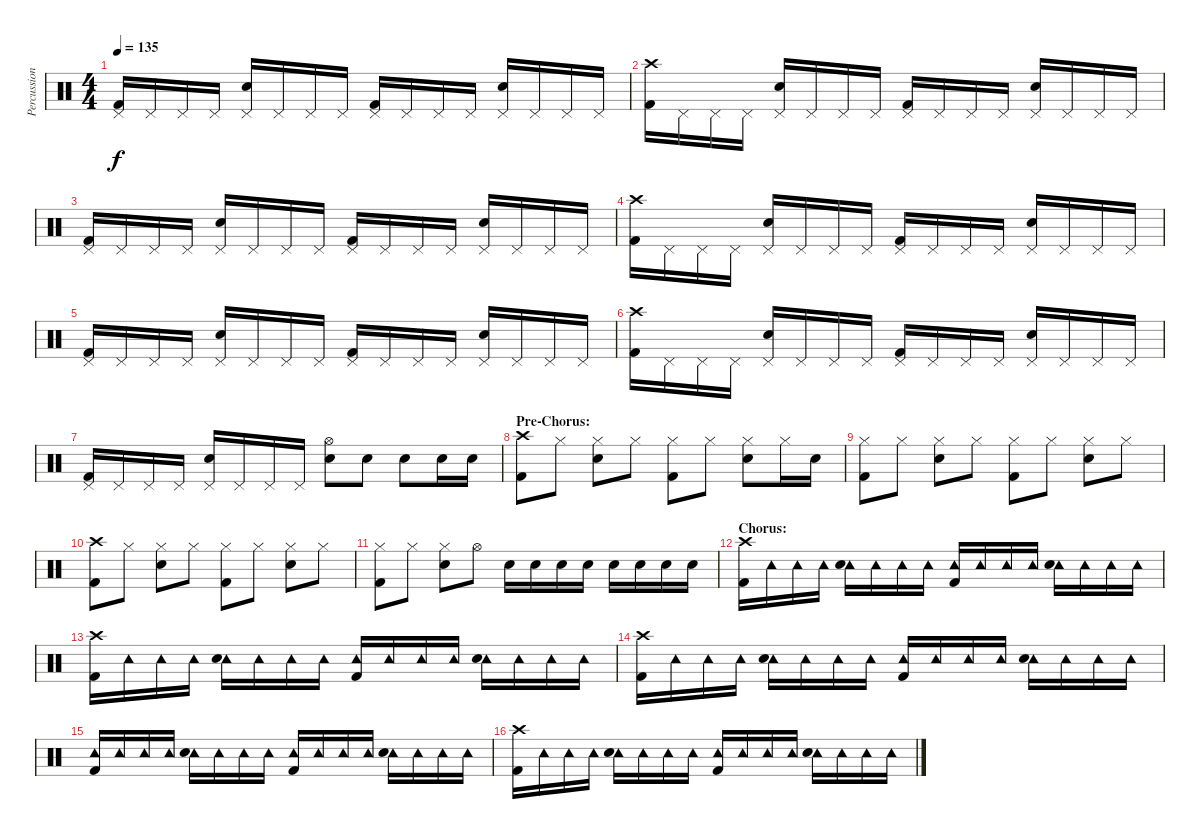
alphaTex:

\track ("Percussion" "Percussion") {instrument percussion}
\staff {score}
\articulation defaults
\ts (4 4)
\tempo 135
\clef neutral
\ks c
("Pedal Hi-Hat (hit)" "Kick (hit) 2").16{dy f} "Pedal Hi-Hat (hit)".16 "Pedal Hi-Hat (hit)".16 "Pedal Hi-Hat (hit)".16 ("Pedal Hi-Hat (hit)" "Snare (hit) 2").16 "Pedal Hi-Hat (hit)".16 "Pedal Hi-Hat (hit)".16 "Pedal Hi-Hat (hit)".16 ("Pedal Hi-Hat (hit)" "Kick (hit) 2").16 "Pedal Hi-Hat (hit)".16 "Pedal Hi-Hat (hit)".16 "Pedal Hi-Hat (hit)".16 ("Pedal Hi-Hat (hit)" "Snare (hit) 2").16 "Pedal Hi-Hat (hit)".16 "Pedal Hi-Hat (hit)".16 "Pedal Hi-Hat (hit)".16 |
("Crash high (hit)" "Kick (hit) 2").16 "Pedal Hi-Hat (hit)".16 "Pedal Hi-Hat (hit)".16 "Pedal Hi-Hat (hit)".16 ("Pedal Hi-Hat (hit)" "Snare (hit) 2").16 "Pedal Hi-Hat (hit)".16 "Pedal Hi-Hat (hit)".16 "Pedal Hi-Hat (hit)".16 ("Pedal Hi-Hat (hit)" "Kick (hit) 2").16 "Pedal Hi-Hat (hit)".16 "Pedal Hi-Hat (hit)".16 "Pedal Hi-Hat (hit)".16 ("Pedal Hi-Hat (hit)" "Snare (hit) 2").16 "Pedal Hi-Hat (hit)".16 "Pedal Hi-Hat (hit)".16 "Pedal Hi-Hat (hit)".16 |
("Pedal Hi-Hat (hit)" "Kick (hit) 2").16 "Pedal Hi-Hat (hit)".16 "Pedal Hi-Hat (hit)".16 "Pedal Hi-Hat (hit)".16 ("Pedal Hi-Hat (hit)" "Snare (hit) 2").16 "Pedal Hi-Hat (hit)".16 "Pedal Hi-Hat (hit)".16 "Pedal Hi-Hat (hit)".16 ("Pedal Hi-Hat (hit)" "Kick (hit) 2").16 "Pedal Hi-Hat (hit)".16 "Pedal Hi-Hat (hit)".16 "Pedal Hi-Hat (hit)".16 ("Pedal Hi-Hat (hit)" "Snare (hit) 2").16 "Pedal Hi-Hat (hit)".16 "Pedal Hi-Hat (hit)".16 "Pedal Hi-Hat (hit)".16 |
("Crash high (hit)" "Kick (hit) 2").16 "Pedal Hi-Hat (hit)".16 "Pedal Hi-Hat (hit)".16 "Pedal Hi-Hat (hit)".16 ("Pedal Hi-Hat (hit)" "Snare (hit) 2").16 "Pedal Hi-Hat (hit)".16 "Pedal Hi-Hat (hit)".16 "Pedal Hi-Hat (hit)".16 ("Pedal Hi-Hat (hit)" "Kick (hit) 2").16 "Pedal Hi-Hat (hit)".16 "Pedal Hi-Hat (hit)".16 "Pedal Hi-Hat (hit)".16 ("Pedal Hi-Hat (hit)" "Snare (hit) 2").16 "Pedal Hi-Hat (hit)".16 "Pedal Hi-Hat (hit)".16 "Pedal Hi-Hat (hit)".16 |
("Pedal Hi-Hat (hit)" "Kick (hit) 2").16 "Pedal Hi-Hat (hit)".16 "Pedal Hi-Hat (hit)".16 "Pedal Hi-Hat (hit)".16 ("Pedal Hi-Hat (hit)" "Snare (hit) 2").16 "Pedal Hi-Hat (hit)".16 "Pedal Hi-Hat (hit)".16 "Pedal Hi-Hat (hit)".16 ("Pedal Hi-Hat (hit)" "Kick (hit) 2").16 "Pedal Hi-Hat (hit)".16 "Pedal Hi-Hat (hit)".16 "Pedal Hi-Hat (hit)".16 ("Pedal Hi-Hat (hit)" "Snare (hit) 2").16 "Pedal Hi-Hat (hit)".16 "Pedal Hi-Hat (hit)".16 "Pedal Hi-Hat (hit)".16 |
("Crash high (hit)" "Kick (hit) 2").16 "Pedal Hi-Hat (hit)".16 "Pedal Hi-Hat (hit)".16 "Pedal Hi-Hat (hit)".16 ("Pedal Hi-Hat (hit)" "Snare (hit) 2").16 "Pedal Hi-Hat (hit)".16 "Pedal Hi-Hat (hit)".16 "Pedal Hi-Hat (hit)".16 ("Pedal Hi-Hat (hit)" "Kick (hit) 2").16 "Pedal Hi-Hat (hit)".16 "Pedal Hi-Hat (hit)".16 "Pedal Hi-Hat (hit)".16 ("Pedal Hi-Hat (hit)" "Snare (hit) 2").16 "Pedal Hi-Hat (hit)".16 "Pedal Hi-Hat (hit)".16 "Pedal Hi-Hat (hit)".16 |
("Pedal Hi-Hat (hit)" "Kick (hit) 2").16 "Pedal Hi-Hat (hit)".16 "Pedal Hi-Hat (hit)".16 "Pedal Hi-Hat (hit)".16 ("Pedal Hi-Hat (hit)" "Snare (hit) 2").16 "Pedal Hi-Hat (hit)".16 "Pedal Hi-Hat (hit)".16 "Pedal Hi-Hat (hit)".16 ("Hi-Hat (open)" "Snare (hit) 2").8 "Snare (hit) 2".8 "Snare (hit) 2".8 "Snare (hit) 2".16 "Snare (hit) 2".16 |
\section ("" "Pre-Chorus:")
("Crash high (hit)" "Kick (hit) 2").8 "Hi-Hat (closed)".8 ("Hi-Hat (closed)" "Snare (hit) 2").8 "Hi-Hat (closed)".8 ("Hi-Hat (closed)" "Kick (hit) 2").8 "Hi-Hat (closed)".8 ("Hi-Hat (closed)" "Snare (hit) 2").8 "Hi-Hat (closed)".16 "Snare (hit) 2".16 |
("Hi-Hat (closed)" "Kick (hit) 2").8 "Hi-Hat (closed)".8 ("Hi-Hat (closed)" "Snare (hit) 2").8 "Hi-Hat (closed)".8 ("Hi-Hat (closed)" "Kick (hit) 2").8 "Hi-Hat (closed)".8 ("Hi-Hat (closed)" "Snare (hit) 2").8 "Hi-Hat (closed)".8 |
("Crash high (hit)" "Kick (hit) 2").8 "Hi-Hat (closed)".8 ("Hi-Hat (closed)" "Snare (hit) 2").8 "Hi-Hat (closed)".8 ("Hi-Hat (closed)" "Kick (hit) 2").8 "Hi-Hat (closed)".8 ("Hi-Hat (closed)" "Snare (hit) 2").8 "Hi-Hat (closed)".8 |
("Hi-Hat (closed)" "Kick (hit) 2").8 "Hi-Hat (closed)".8 ("Hi-Hat (closed)" "Snare (hit) 2").8 "Hi-Hat (open)".8 "Snare (hit) 2".16 "Snare (hit) 2".16 "Snare (hit) 2".16 "Snare (hit) 2".16 "Snare (hit) 2".16 "Snare (hit) 2".16 "Snare (hit) 2".16 "Snare (hit) 2".16 |
\section ("" "Chorus:")
("Crash high (hit)" "Kick (hit) 2").16 "Tambourine (hit)".16 "Tambourine (hit)".16 "Tambourine (hit)".16 ("Tambourine (hit)" "Snare (hit) 2").16 "Tambourine (hit)".16 "Tambourine (hit)".16 "Tambourine (hit)".16 ("Tambourine (hit)" "Kick (hit) 2").16 "Tambourine (hit)".16 "Tambourine (hit)".16 "Tambourine (hit)".16 ("Tambourine (hit)" "Snare (hit) 2").16 "Tambourine (hit)".16 "Tambourine (hit)".16 "Tambourine (hit)".16 |
("Crash high (hit)" "Kick (hit) 2").16 "Tambourine (hit)".16 "Tambourine (hit)".16 "Tambourine (hit)".16 ("Tambourine (hit)" "Snare (hit) 2").16 "Tambourine (hit)".16 "Tambourine (hit)".16 "Tambourine (hit)".16 ("Tambourine (hit)" "Kick (hit) 2").16 "Tambourine (hit)".16 "Tambourine (hit)".16 "Tambourine (hit)".16 ("Tambourine (hit)" "Snare (hit) 2").16 "Tambourine (hit)".16 "Tambourine (hit)".16 "Tambourine (hit)".16 |
("Crash high (hit)" "Kick (hit) 2").16 "Tambourine (hit)".16 "Tambourine (hit)".16 "Tambourine (hit)".16 ("Tambourine (hit)" "Snare (hit) 2").16 "Tambourine (hit)".16 "Tambourine (hit)".16 "Tambourine (hit)".16 ("Tambourine (hit)" "Kick (hit) 2").16 "Tambourine (hit)".16 "Tambourine (hit)".16 "Tambourine (hit)".16 ("Tambourine (hit)" "Snare (hit) 2").16 "Tambourine (hit)".16 "Tambourine (hit)".16 "Tambourine (hit)".16 |
("Tambourine (hit)" "Kick (hit) 2").16 "Tambourine (hit)".16 "Tambourine (hit)".16 "Tambourine (hit)".16 ("Tambourine (hit)" "Snare (hit) 2").16 "Tambourine (hit)".16 "Tambourine (hit)".16 "Tambourine (hit)".16 ("Tambourine (hit)" "Kick (hit) 2").16 "Tambourine (hit)".16 "Tambourine (hit)".16 "Tambourine (hit)".16 ("Tambourine (hit)" "Snare (hit) 2").16 "Tambourine (hit)".16 "Tambourine (hit)".16 "Tambourine (hit)".16 |
("Crash high (hit)" "Kick (hit) 2").16 "Tambourine (hit)".16 "Tambourine (hit)".16 "Tambourine (hit)".16 ("Tambourine (hit)" "Snare (hit) 2").16 "Tambourine (hit)".16 "Tambourine (hit)".16 "Tambourine (hit)".16 ("Tambourine (hit)" "Kick (hit) 2").16 "Tambourine (hit)".16 "Tambourine (hit)".16 "Tambourine (hit)".16 ("Tambourine (hit)" "Snare (hit) 2").16 "Tambourine (hit)".16 "Tambourine (hit)".16 "Tambourine (hit)".16
